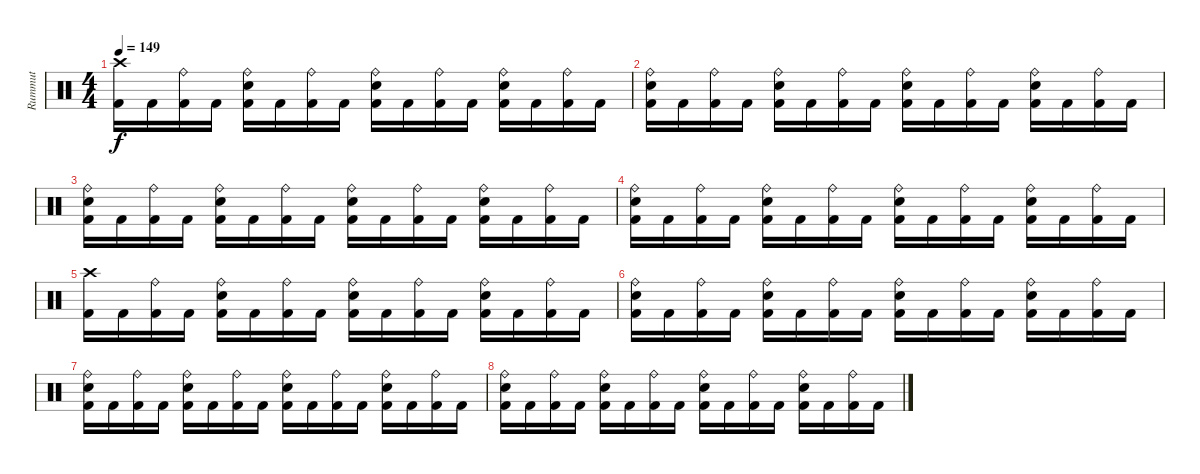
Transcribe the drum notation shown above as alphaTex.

\track ("Rummut" "Rummut") {instrument percussion}
\staff {score}
\articulation defaults
\ts (4 4)
\tempo 149
\clef neutral
\ks c
("Crash high (hit)" "Kick (hit) 2").16{dy f} "Kick (hit) 2".16 ("Ride (bell)" "Kick (hit) 2").16 "Kick (hit) 2".16 ("Ride (bell)" "Electric Snare (hit)" "Kick (hit) 2").16 "Kick (hit) 2".16 ("Ride (bell)" "Kick (hit) 2").16 "Kick (hit) 2".16 ("Ride (bell)" "Electric Snare (hit)" "Kick (hit) 2").16 "Kick (hit) 2".16 ("Ride (bell)" "Kick (hit) 2").16 "Kick (hit) 2".16 ("Ride (bell)" "Electric Snare (hit)" "Kick (hit) 2").16 "Kick (hit) 2".16 ("Ride (bell)" "Kick (hit) 2").16 "Kick (hit) 2".16 |
("Ride (bell)" "Electric Snare (hit)" "Kick (hit) 2").16 "Kick (hit) 2".16 ("Ride (bell)" "Kick (hit) 2").16 "Kick (hit) 2".16 ("Ride (bell)" "Electric Snare (hit)" "Kick (hit) 2").16 "Kick (hit) 2".16 ("Ride (bell)" "Kick (hit) 2").16 "Kick (hit) 2".16 ("Ride (bell)" "Electric Snare (hit)" "Kick (hit) 2").16 "Kick (hit) 2".16 ("Ride (bell)" "Kick (hit) 2").16 "Kick (hit) 2".16 ("Ride (bell)" "Electric Snare (hit)" "Kick (hit) 2").16 "Kick (hit) 2".16 ("Ride (bell)" "Kick (hit) 2").16 "Kick (hit) 2".16 |
("Ride (bell)" "Electric Snare (hit)" "Kick (hit) 2").16 "Kick (hit) 2".16 ("Ride (bell)" "Kick (hit) 2").16 "Kick (hit) 2".16 ("Ride (bell)" "Electric Snare (hit)" "Kick (hit) 2").16 "Kick (hit) 2".16 ("Ride (bell)" "Kick (hit) 2").16 "Kick (hit) 2".16 ("Ride (bell)" "Electric Snare (hit)" "Kick (hit) 2").16 "Kick (hit) 2".16 ("Ride (bell)" "Kick (hit) 2").16 "Kick (hit) 2".16 ("Ride (bell)" "Electric Snare (hit)" "Kick (hit) 2").16 "Kick (hit) 2".16 ("Ride (bell)" "Kick (hit) 2").16 "Kick (hit) 2".16 |
("Ride (bell)" "Electric Snare (hit)" "Kick (hit) 2").16 "Kick (hit) 2".16 ("Ride (bell)" "Kick (hit) 2").16 "Kick (hit) 2".16 ("Ride (bell)" "Electric Snare (hit)" "Kick (hit) 2").16 "Kick (hit) 2".16 ("Ride (bell)" "Kick (hit) 2").16 "Kick (hit) 2".16 ("Ride (bell)" "Electric Snare (hit)" "Kick (hit) 2").16 "Kick (hit) 2".16 ("Ride (bell)" "Kick (hit) 2").16 "Kick (hit) 2".16 ("Ride (bell)" "Electric Snare (hit)" "Kick (hit) 2").16 "Kick (hit) 2".16 ("Ride (bell)" "Kick (hit) 2").16 "Kick (hit) 2".16 |
("Crash high (hit)" "Kick (hit) 2").16 "Kick (hit) 2".16 ("Ride (bell)" "Kick (hit) 2").16 "Kick (hit) 2".16 ("Ride (bell)" "Electric Snare (hit)" "Kick (hit) 2").16 "Kick (hit) 2".16 ("Ride (bell)" "Kick (hit) 2").16 "Kick (hit) 2".16 ("Ride (bell)" "Electric Snare (hit)" "Kick (hit) 2").16 "Kick (hit) 2".16 ("Ride (bell)" "Kick (hit) 2").16 "Kick (hit) 2".16 ("Ride (bell)" "Electric Snare (hit)" "Kick (hit) 2").16 "Kick (hit) 2".16 ("Ride (bell)" "Kick (hit) 2").16 "Kick (hit) 2".16 |
("Ride (bell)" "Electric Snare (hit)" "Kick (hit) 2").16 "Kick (hit) 2".16 ("Ride (bell)" "Kick (hit) 2").16 "Kick (hit) 2".16 ("Ride (bell)" "Electric Snare (hit)" "Kick (hit) 2").16 "Kick (hit) 2".16 ("Ride (bell)" "Kick (hit) 2").16 "Kick (hit) 2".16 ("Ride (bell)" "Electric Snare (hit)" "Kick (hit) 2").16 "Kick (hit) 2".16 ("Ride (bell)" "Kick (hit) 2").16 "Kick (hit) 2".16 ("Ride (bell)" "Electric Snare (hit)" "Kick (hit) 2").16 "Kick (hit) 2".16 ("Ride (bell)" "Kick (hit) 2").16 "Kick (hit) 2".16 |
("Ride (bell)" "Electric Snare (hit)" "Kick (hit) 2").16 "Kick (hit) 2".16 ("Ride (bell)" "Kick (hit) 2").16 "Kick (hit) 2".16 ("Ride (bell)" "Electric Snare (hit)" "Kick (hit) 2").16 "Kick (hit) 2".16 ("Ride (bell)" "Kick (hit) 2").16 "Kick (hit) 2".16 ("Ride (bell)" "Electric Snare (hit)" "Kick (hit) 2").16 "Kick (hit) 2".16 ("Ride (bell)" "Kick (hit) 2").16 "Kick (hit) 2".16 ("Ride (bell)" "Electric Snare (hit)" "Kick (hit) 2").16 "Kick (hit) 2".16 ("Ride (bell)" "Kick (hit) 2").16 "Kick (hit) 2".16 |
("Ride (bell)" "Electric Snare (hit)" "Kick (hit) 2").16 "Kick (hit) 2".16 ("Ride (bell)" "Kick (hit) 2").16 "Kick (hit) 2".16 ("Ride (bell)" "Electric Snare (hit)" "Kick (hit) 2").16 "Kick (hit) 2".16 ("Ride (bell)" "Kick (hit) 2").16 "Kick (hit) 2".16 ("Ride (bell)" "Electric Snare (hit)" "Kick (hit) 2").16 "Kick (hit) 2".16 ("Ride (bell)" "Kick (hit) 2").16 "Kick (hit) 2".16 ("Ride (bell)" "Electric Snare (hit)" "Kick (hit) 2").16 "Kick (hit) 2".16 ("Ride (bell)" "Kick (hit) 2").16 "Kick (hit) 2".16
